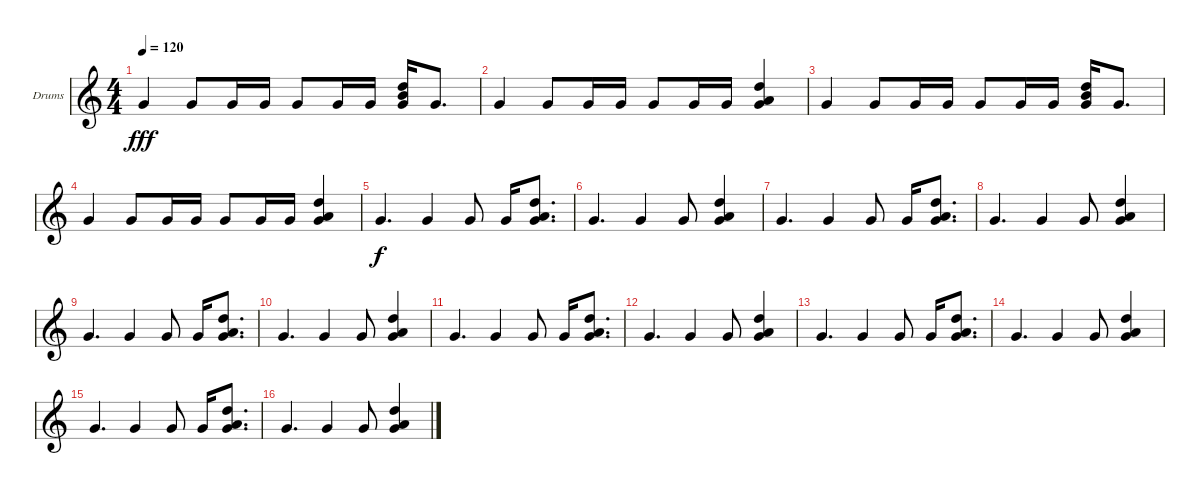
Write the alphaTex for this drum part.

\defaultSystemsLayout 4
\bracketExtendMode groupsimilarinstruments
\firstSystemTrackNameOrientation horizontal
\otherSystemsTrackNameOrientation horizontal
\track ("Drumkit" "Drums") {instrument percussion}
\staff {score}
\articulation defaults
\ts (4 4)
\tempo 120
\clef g2
\scale
0.333333
\ks c "Very Low Tom (hit)".4{dy fff} "Very Low Tom (hit)".8 "Very Low Tom (hit)".16 "Very Low Tom (hit)".16 "Very Low Tom (hit)".8 "Very Low Tom (hit)".16 "Very Low Tom (hit)".16
("Very Low Tom (hit)" "High Tom (hit)" "Mid Tom (hit)").16 "Very Low Tom (hit)".8{d} |
\scale
0.333333 "Very Low Tom (hit)".4 "Very Low Tom (hit)".8 "Very Low Tom (hit)".16 "Very Low Tom (hit)".16 "Very Low Tom (hit)".8 "Very Low Tom (hit)".16 "Very Low Tom (hit)".16 ("Very Low Tom (hit)" "Low Tom (hit)" "High Tom (hit)").4 |
\scale
0.333333 "Very Low Tom (hit)".4 "Very Low Tom (hit)".8 "Very Low Tom (hit)".16 "Very Low Tom (hit)".16 "Very Low Tom (hit)".8 "Very Low Tom (hit)".16 "Very Low Tom (hit)".16 ("Very Low Tom (hit)" "High Tom (hit)" "Mid Tom (hit)").16 "Very Low Tom (hit)".8{d} |
\scale
0.333333 "Very Low Tom (hit)".4 "Very Low Tom (hit)".8 "Very Low Tom (hit)".16 "Very Low Tom (hit)".16 "Very Low Tom (hit)".8 "Very Low Tom (hit)".16 "Very Low Tom (hit)".16 ("Very Low Tom (hit)" "Low Tom (hit)" "High Tom (hit)").4 |
\scale
0.333333 "Very Low Tom (hit)".4{d dy f} "Very Low Tom (hit)".4 "Very Low Tom (hit)".8 "Very Low Tom (hit)".16 ("Very Low Tom (hit)" "High Tom (hit)" "Low Tom (hit)").8{d} |
\scale
0.333333 "Very Low Tom (hit)".4{d} "Very Low Tom (hit)".4 "Very Low Tom (hit)".8 ("Very Low Tom (hit)" "High Tom (hit)" "Low Tom (hit)").4 |
\scale
0.333333 "Very Low Tom (hit)".4{d} "Very Low Tom (hit)".4 "Very Low Tom (hit)".8 "Very Low Tom (hit)".16 ("Very Low Tom (hit)" "High Tom (hit)" "Low Tom (hit)").8{d} |
\scale
0.333333 "Very Low Tom (hit)".4{d} "Very Low Tom (hit)".4 "Very Low Tom (hit)".8 ("Very Low Tom (hit)" "High Tom (hit)" "Low Tom (hit)").4 |
\scale
0.333333 "Very Low Tom (hit)".4{d} "Very Low Tom (hit)".4 "Very Low Tom (hit)".8 "Very Low Tom (hit)".16 ("Very Low Tom (hit)" "High Tom (hit)" "Low Tom (hit)").8{d} |
\scale
0.333333 "Very Low Tom (hit)".4{d} "Very Low Tom (hit)".4 "Very Low Tom (hit)".8 ("Very Low Tom (hit)" "High Tom (hit)" "Low Tom (hit)").4 |
\scale
0.333333 "Very Low Tom (hit)".4{d} "Very Low Tom (hit)".4 "Very Low Tom (hit)".8 "Very Low Tom (hit)".16 ("Very Low Tom (hit)" "High Tom (hit)" "Low Tom (hit)").8{d} |
\scale
0.333333 "Very Low Tom (hit)".4{d} "Very Low Tom (hit)".4 "Very Low Tom (hit)".8 ("Very Low Tom (hit)" "High Tom (hit)" "Low Tom (hit)").4 |
\scale
0.333333 "Very Low Tom (hit)".4{d} "Very Low Tom (hit)".4 "Very Low Tom (hit)".8 "Very Low Tom (hit)".16 ("Very Low Tom (hit)" "High Tom (hit)" "Low Tom (hit)").8{d} |
\scale
0.333333 "Very Low Tom (hit)".4{d} "Very Low Tom (hit)".4 "Very Low Tom (hit)".8 ("Very Low Tom (hit)" "High Tom (hit)" "Low Tom (hit)").4 |
\scale
0.333333 "Very Low Tom (hit)".4{d} "Very Low Tom (hit)".4 "Very Low Tom (hit)".8 "Very Low Tom (hit)".16 ("Very Low Tom (hit)" "High Tom (hit)" "Low Tom (hit)").8{d} |
\scale
0.333333 "Very Low Tom (hit)".4{d} "Very Low Tom (hit)".4 "Very Low Tom (hit)".8 ("Very Low Tom (hit)" "High Tom (hit)" "Low Tom (hit)").4
